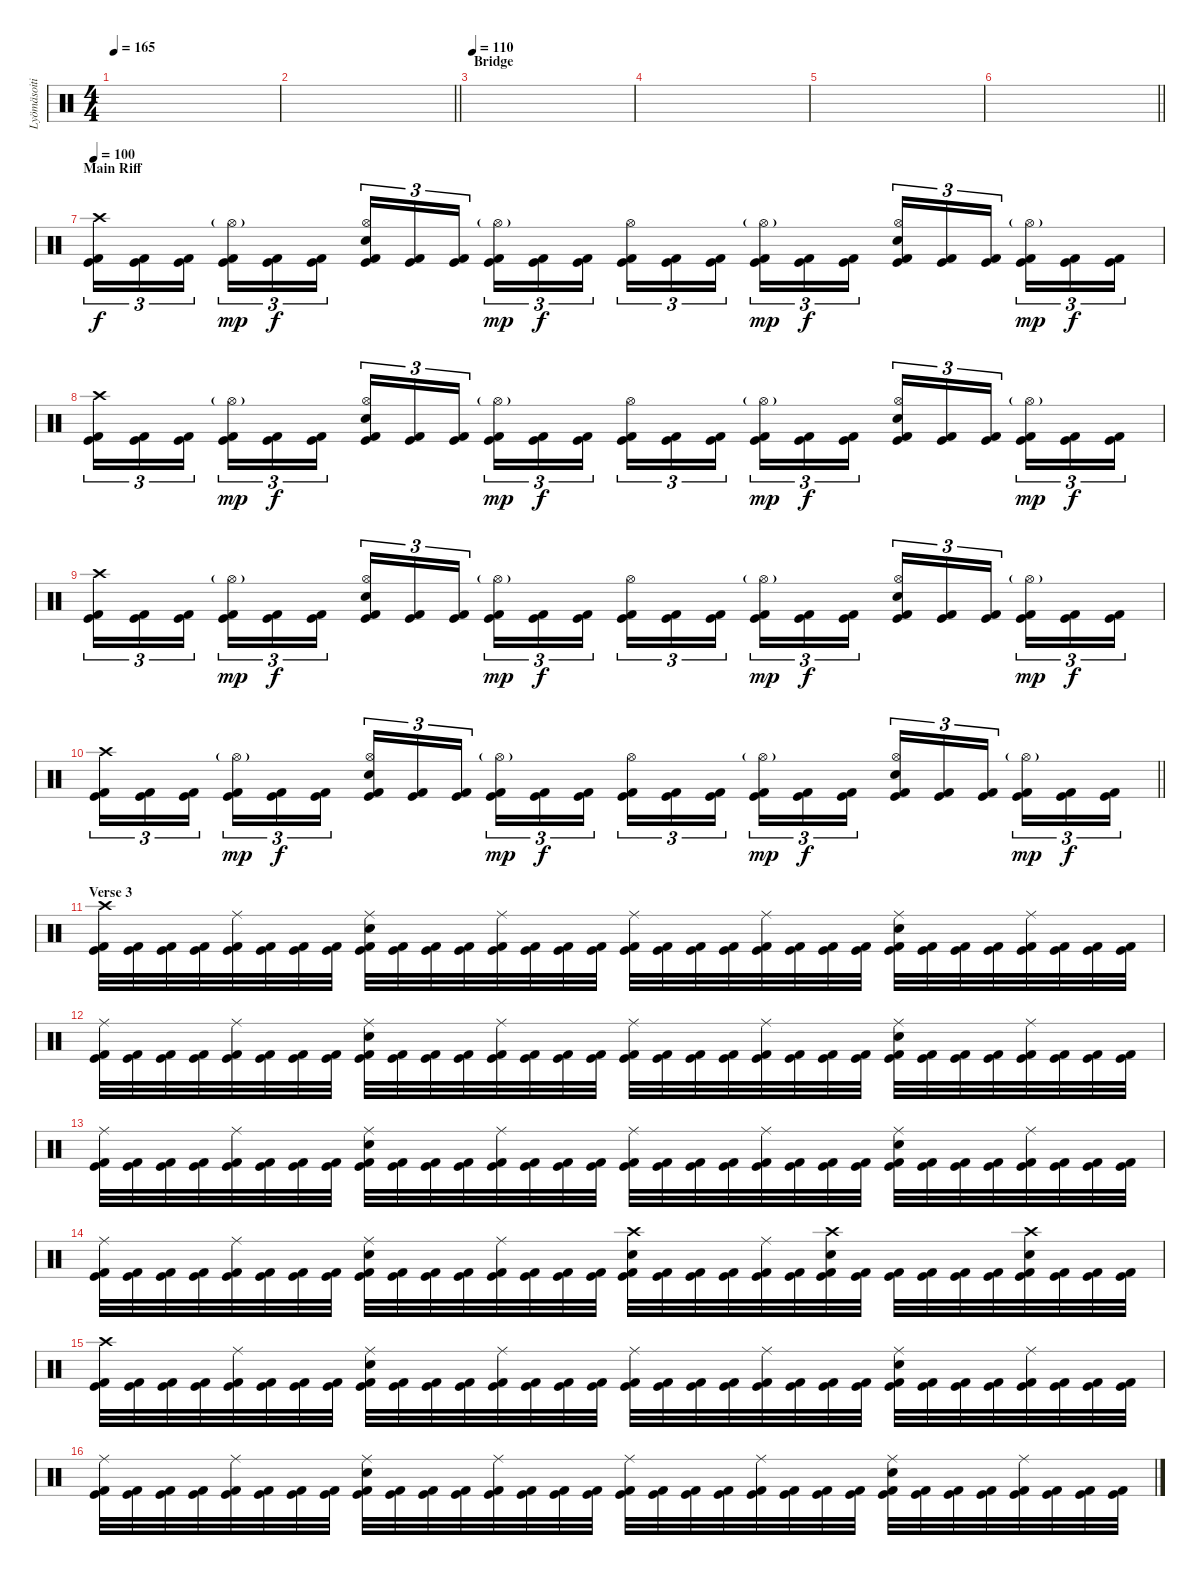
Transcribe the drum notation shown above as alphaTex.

\track ("Lyömäsoitin" "Lyömäsoiti") {instrument percussion}
\staff {score}
\articulation defaults
\ts (4 4)
\tempo 165
\clef neutral
\ks c
|
\barLineRight lightlight
|
\section ("" "Bridge")
\tempo 110
|
|
|
\barLineRight lightlight
|
\section ("" "Main Riff")
\tempo 100
("Crash high (hit)" "Kick (hit) 2" "Kick (hit)").16{tu (3 2)} ("Kick (hit) 2" "Kick (hit)").16{tu (3 2)} ("Kick (hit) 2" "Kick (hit)").16{tu (3 2) beam splitsecondary} ("Hi-Hat (open)"{g} "Kick (hit) 2" "Kick (hit)").16{tu (3 2) dy mp} ("Kick (hit) 2" "Kick (hit)").16{tu (3 2) dy f} ("Kick (hit) 2" "Kick (hit)").16{tu (3 2)} ("Electric Snare (hit)" "Hi-Hat (open)" "Kick (hit) 2" "Kick (hit)").16{tu (3 2)} ("Kick (hit) 2" "Kick (hit)").16{tu (3 2)} ("Kick (hit) 2" "Kick (hit)").16{tu (3 2) beam splitsecondary} ("Hi-Hat (open)"{g} "Kick (hit) 2" "Kick (hit)").16{tu (3 2) dy mp} ("Kick (hit) 2" "Kick (hit)").16{tu (3 2) dy f} ("Kick (hit) 2" "Kick (hit)").16{tu (3 2)} ("Hi-Hat (open)" "Kick (hit) 2" "Kick (hit)").16{tu (3 2)} ("Kick (hit) 2" "Kick (hit)").16{tu (3 2)} ("Kick (hit) 2" "Kick (hit)").16{tu (3 2) beam splitsecondary} ("Hi-Hat (open)"{g} "Kick (hit) 2" "Kick (hit)").16{tu (3 2) dy mp} ("Kick (hit) 2" "Kick (hit)").16{tu (3 2) dy f} ("Kick (hit) 2" "Kick (hit)").16{tu (3 2)} ("Electric Snare (hit)" "Hi-Hat (open)" "Kick (hit) 2" "Kick (hit)").16{tu (3 2)} ("Kick (hit) 2" "Kick (hit)").16{tu (3 2)} ("Kick (hit) 2" "Kick (hit)").16{tu (3 2) beam splitsecondary} ("Hi-Hat (open)"{g} "Kick (hit) 2" "Kick (hit)").16{tu (3 2) dy mp} ("Kick (hit) 2" "Kick (hit)").16{tu (3 2) dy f} ("Kick (hit) 2" "Kick (hit)").16{tu (3 2)} |
("Crash high (hit)" "Kick (hit) 2" "Kick (hit)").16{tu (3 2)} ("Kick (hit) 2" "Kick (hit)").16{tu (3 2)} ("Kick (hit) 2" "Kick (hit)").16{tu (3 2) beam splitsecondary} ("Hi-Hat (open)"{g} "Kick (hit) 2" "Kick (hit)").16{tu (3 2) dy mp} ("Kick (hit) 2" "Kick (hit)").16{tu (3 2) dy f} ("Kick (hit) 2" "Kick (hit)").16{tu (3 2)} ("Electric Snare (hit)" "Hi-Hat (open)" "Kick (hit) 2" "Kick (hit)").16{tu (3 2)} ("Kick (hit) 2" "Kick (hit)").16{tu (3 2)} ("Kick (hit) 2" "Kick (hit)").16{tu (3 2) beam splitsecondary} ("Hi-Hat (open)"{g} "Kick (hit) 2" "Kick (hit)").16{tu (3 2) dy mp} ("Kick (hit) 2" "Kick (hit)").16{tu (3 2) dy f} ("Kick (hit) 2" "Kick (hit)").16{tu (3 2)} ("Hi-Hat (open)" "Kick (hit) 2" "Kick (hit)").16{tu (3 2)} ("Kick (hit) 2" "Kick (hit)").16{tu (3 2)} ("Kick (hit) 2" "Kick (hit)").16{tu (3 2) beam splitsecondary} ("Hi-Hat (open)"{g} "Kick (hit) 2" "Kick (hit)").16{tu (3 2) dy mp} ("Kick (hit) 2" "Kick (hit)").16{tu (3 2) dy f} ("Kick (hit) 2" "Kick (hit)").16{tu (3 2)} ("Electric Snare (hit)" "Hi-Hat (open)" "Kick (hit) 2" "Kick (hit)").16{tu (3 2)} ("Kick (hit) 2" "Kick (hit)").16{tu (3 2)} ("Kick (hit) 2" "Kick (hit)").16{tu (3 2) beam splitsecondary} ("Hi-Hat (open)"{g} "Kick (hit) 2" "Kick (hit)").16{tu (3 2) dy mp} ("Kick (hit) 2" "Kick (hit)").16{tu (3 2) dy f} ("Kick (hit) 2" "Kick (hit)").16{tu (3 2)} |
("Crash high (hit)" "Kick (hit) 2" "Kick (hit)").16{tu (3 2)} ("Kick (hit) 2" "Kick (hit)").16{tu (3 2)} ("Kick (hit) 2" "Kick (hit)").16{tu (3 2) beam splitsecondary} ("Hi-Hat (open)"{g} "Kick (hit) 2" "Kick (hit)").16{tu (3 2) dy mp} ("Kick (hit) 2" "Kick (hit)").16{tu (3 2) dy f} ("Kick (hit) 2" "Kick (hit)").16{tu (3 2)} ("Electric Snare (hit)" "Hi-Hat (open)" "Kick (hit) 2" "Kick (hit)").16{tu (3 2)} ("Kick (hit) 2" "Kick (hit)").16{tu (3 2)} ("Kick (hit) 2" "Kick (hit)").16{tu (3 2) beam splitsecondary} ("Hi-Hat (open)"{g} "Kick (hit) 2" "Kick (hit)").16{tu (3 2) dy mp} ("Kick (hit) 2" "Kick (hit)").16{tu (3 2) dy f} ("Kick (hit) 2" "Kick (hit)").16{tu (3 2)} ("Hi-Hat (open)" "Kick (hit) 2" "Kick (hit)").16{tu (3 2)} ("Kick (hit) 2" "Kick (hit)").16{tu (3 2)} ("Kick (hit) 2" "Kick (hit)").16{tu (3 2) beam splitsecondary} ("Hi-Hat (open)"{g} "Kick (hit) 2" "Kick (hit)").16{tu (3 2) dy mp} ("Kick (hit) 2" "Kick (hit)").16{tu (3 2) dy f} ("Kick (hit) 2" "Kick (hit)").16{tu (3 2)} ("Electric Snare (hit)" "Hi-Hat (open)" "Kick (hit) 2" "Kick (hit)").16{tu (3 2)} ("Kick (hit) 2" "Kick (hit)").16{tu (3 2)} ("Kick (hit) 2" "Kick (hit)").16{tu (3 2) beam splitsecondary} ("Hi-Hat (open)"{g} "Kick (hit) 2" "Kick (hit)").16{tu (3 2) dy mp} ("Kick (hit) 2" "Kick (hit)").16{tu (3 2) dy f} ("Kick (hit) 2" "Kick (hit)").16{tu (3 2)} |
\barLineRight lightlight
("Crash high (hit)" "Kick (hit) 2" "Kick (hit)").16{tu (3 2)} ("Kick (hit) 2" "Kick (hit)").16{tu (3 2)} ("Kick (hit) 2" "Kick (hit)").16{tu (3 2) beam splitsecondary} ("Hi-Hat (open)"{g} "Kick (hit) 2" "Kick (hit)").16{tu (3 2) dy mp} ("Kick (hit) 2" "Kick (hit)").16{tu (3 2) dy f} ("Kick (hit) 2" "Kick (hit)").16{tu (3 2)} ("Electric Snare (hit)" "Hi-Hat (open)" "Kick (hit) 2" "Kick (hit)").16{tu (3 2)} ("Kick (hit) 2" "Kick (hit)").16{tu (3 2)} ("Kick (hit) 2" "Kick (hit)").16{tu (3 2) beam splitsecondary} ("Hi-Hat (open)"{g} "Kick (hit) 2" "Kick (hit)").16{tu (3 2) dy mp} ("Kick (hit) 2" "Kick (hit)").16{tu (3 2) dy f} ("Kick (hit) 2" "Kick (hit)").16{tu (3 2)} ("Hi-Hat (open)" "Kick (hit) 2" "Kick (hit)").16{tu (3 2)} ("Kick (hit) 2" "Kick (hit)").16{tu (3 2)} ("Kick (hit) 2" "Kick (hit)").16{tu (3 2) beam splitsecondary} ("Hi-Hat (open)"{g} "Kick (hit) 2" "Kick (hit)").16{tu (3 2) dy mp} ("Kick (hit) 2" "Kick (hit)").16{tu (3 2) dy f} ("Kick (hit) 2" "Kick (hit)").16{tu (3 2)} ("Electric Snare (hit)" "Hi-Hat (open)" "Kick (hit) 2" "Kick (hit)").16{tu (3 2)} ("Kick (hit) 2" "Kick (hit)").16{tu (3 2)} ("Kick (hit) 2" "Kick (hit)").16{tu (3 2) beam splitsecondary} ("Hi-Hat (open)"{g} "Kick (hit) 2" "Kick (hit)").16{tu (3 2) dy mp} ("Kick (hit) 2" "Kick (hit)").16{tu (3 2) dy f} ("Kick (hit) 2" "Kick (hit)").16{tu (3 2)} |
\section ("" "Verse 3")
("Kick (hit) 2" "Crash high (hit)" "Kick (hit)").32 ("Kick (hit) 2" "Kick (hit)").32 ("Kick (hit) 2" "Kick (hit)").32 ("Kick (hit) 2" "Kick (hit)").32 ("Kick (hit) 2" "Ride (middle)" "Kick (hit)").32 ("Kick (hit) 2" "Kick (hit)").32 ("Kick (hit) 2" "Kick (hit)").32 ("Kick (hit) 2" "Kick (hit)").32 ("Kick (hit) 2" "Ride (middle)" "Electric Snare (hit)" "Kick (hit)").32 ("Kick (hit) 2" "Kick (hit)").32 ("Kick (hit) 2" "Kick (hit)").32 ("Kick (hit) 2" "Kick (hit)").32 ("Kick (hit) 2" "Ride (middle)" "Kick (hit)").32 ("Kick (hit) 2" "Kick (hit)").32 ("Kick (hit) 2" "Kick (hit)").32 ("Kick (hit) 2" "Kick (hit)").32 ("Kick (hit) 2" "Ride (middle)" "Kick (hit)").32 ("Kick (hit) 2" "Kick (hit)").32 ("Kick (hit) 2" "Kick (hit)").32 ("Kick (hit) 2" "Kick (hit)").32 ("Kick (hit) 2" "Ride (middle)" "Kick (hit)").32 ("Kick (hit) 2" "Kick (hit)").32 ("Kick (hit) 2" "Kick (hit)").32 ("Kick (hit) 2" "Kick (hit)").32 ("Kick (hit) 2" "Ride (middle)" "Electric Snare (hit)" "Kick (hit)").32 ("Kick (hit) 2" "Kick (hit)").32 ("Kick (hit) 2" "Kick (hit)").32 ("Kick (hit) 2" "Kick (hit)").32 ("Kick (hit) 2" "Ride (middle)" "Kick (hit)").32 ("Kick (hit) 2" "Kick (hit)").32 ("Kick (hit) 2" "Kick (hit)").32 ("Kick (hit) 2" "Kick (hit)").32 |
("Kick (hit) 2" "Ride (middle)" "Kick (hit)").32 ("Kick (hit) 2" "Kick (hit)").32 ("Kick (hit) 2" "Kick (hit)").32 ("Kick (hit) 2" "Kick (hit)").32 ("Kick (hit) 2" "Ride (middle)" "Kick (hit)").32 ("Kick (hit) 2" "Kick (hit)").32 ("Kick (hit) 2" "Kick (hit)").32 ("Kick (hit) 2" "Kick (hit)").32 ("Kick (hit) 2" "Ride (middle)" "Electric Snare (hit)" "Kick (hit)").32 ("Kick (hit) 2" "Kick (hit)").32 ("Kick (hit) 2" "Kick (hit)").32 ("Kick (hit) 2" "Kick (hit)").32 ("Kick (hit) 2" "Ride (middle)" "Kick (hit)").32 ("Kick (hit) 2" "Kick (hit)").32 ("Kick (hit) 2" "Kick (hit)").32 ("Kick (hit) 2" "Kick (hit)").32 ("Kick (hit) 2" "Ride (middle)" "Kick (hit)").32 ("Kick (hit) 2" "Kick (hit)").32 ("Kick (hit) 2" "Kick (hit)").32 ("Kick (hit) 2" "Kick (hit)").32 ("Kick (hit) 2" "Ride (middle)" "Kick (hit)").32 ("Kick (hit) 2" "Kick (hit)").32 ("Kick (hit) 2" "Kick (hit)").32 ("Kick (hit) 2" "Kick (hit)").32 ("Kick (hit) 2" "Ride (middle)" "Electric Snare (hit)" "Kick (hit)").32 ("Kick (hit) 2" "Kick (hit)").32 ("Kick (hit) 2" "Kick (hit)").32 ("Kick (hit) 2" "Kick (hit)").32 ("Kick (hit) 2" "Ride (middle)" "Kick (hit)").32 ("Kick (hit) 2" "Kick (hit)").32 ("Kick (hit) 2" "Kick (hit)").32 ("Kick (hit) 2" "Kick (hit)").32 |
("Kick (hit) 2" "Ride (middle)" "Kick (hit)").32 ("Kick (hit) 2" "Kick (hit)").32 ("Kick (hit) 2" "Kick (hit)").32 ("Kick (hit) 2" "Kick (hit)").32 ("Kick (hit) 2" "Ride (middle)" "Kick (hit)").32 ("Kick (hit) 2" "Kick (hit)").32 ("Kick (hit) 2" "Kick (hit)").32 ("Kick (hit) 2" "Kick (hit)").32 ("Kick (hit) 2" "Ride (middle)" "Electric Snare (hit)" "Kick (hit)").32 ("Kick (hit) 2" "Kick (hit)").32 ("Kick (hit) 2" "Kick (hit)").32 ("Kick (hit) 2" "Kick (hit)").32 ("Kick (hit) 2" "Ride (middle)" "Kick (hit)").32 ("Kick (hit) 2" "Kick (hit)").32 ("Kick (hit) 2" "Kick (hit)").32 ("Kick (hit) 2" "Kick (hit)").32 ("Kick (hit) 2" "Ride (middle)" "Kick (hit)").32 ("Kick (hit) 2" "Kick (hit)").32 ("Kick (hit) 2" "Kick (hit)").32 ("Kick (hit) 2" "Kick (hit)").32 ("Kick (hit) 2" "Ride (middle)" "Kick (hit)").32 ("Kick (hit) 2" "Kick (hit)").32 ("Kick (hit) 2" "Kick (hit)").32 ("Kick (hit) 2" "Kick (hit)").32 ("Kick (hit) 2" "Ride (middle)" "Electric Snare (hit)" "Kick (hit)").32 ("Kick (hit) 2" "Kick (hit)").32 ("Kick (hit) 2" "Kick (hit)").32 ("Kick (hit) 2" "Kick (hit)").32 ("Kick (hit) 2" "Ride (middle)" "Kick (hit)").32 ("Kick (hit) 2" "Kick (hit)").32 ("Kick (hit) 2" "Kick (hit)").32 ("Kick (hit) 2" "Kick (hit)").32 |
("Kick (hit) 2" "Ride (middle)" "Kick (hit)").32 ("Kick (hit) 2" "Kick (hit)").32 ("Kick (hit) 2" "Kick (hit)").32 ("Kick (hit) 2" "Kick (hit)").32 ("Kick (hit) 2" "Ride (middle)" "Kick (hit)").32 ("Kick (hit) 2" "Kick (hit)").32 ("Kick (hit) 2" "Kick (hit)").32 ("Kick (hit) 2" "Kick (hit)").32 ("Kick (hit) 2" "Ride (middle)" "Electric Snare (hit)" "Kick (hit)").32 ("Kick (hit) 2" "Kick (hit)").32 ("Kick (hit) 2" "Kick (hit)").32 ("Kick (hit) 2" "Kick (hit)").32 ("Kick (hit) 2" "Ride (middle)" "Kick (hit)").32 ("Kick (hit) 2" "Kick (hit)").32 ("Kick (hit) 2" "Kick (hit)").32 ("Kick (hit) 2" "Kick (hit)").32 ("Kick (hit) 2" "Crash high (hit)" "Electric Snare (hit)" "Kick (hit)").32 ("Kick (hit) 2" "Kick (hit)").32 ("Kick (hit) 2" "Kick (hit)").32 ("Kick (hit) 2" "Kick (hit)").32 ("Kick (hit) 2" "Ride (middle)" "Kick (hit)").32 ("Kick (hit) 2" "Kick (hit)").32 ("Kick (hit) 2" "Crash high (hit)" "Electric Snare (hit)" "Kick (hit)").32 ("Kick (hit) 2" "Kick (hit)").32 ("Kick (hit) 2" "Kick (hit)").32 ("Kick (hit) 2" "Kick (hit)").32 ("Kick (hit) 2" "Kick (hit)").32 ("Kick (hit) 2" "Kick (hit)").32 ("Kick (hit) 2" "Electric Snare (hit)" "Crash high (hit)" "Kick (hit)").32 ("Kick (hit) 2" "Kick (hit)").32 ("Kick (hit) 2" "Kick (hit)").32 ("Kick (hit) 2" "Kick (hit)").32 |
("Kick (hit) 2" "Crash high (hit)" "Kick (hit)").32 ("Kick (hit) 2" "Kick (hit)").32 ("Kick (hit) 2" "Kick (hit)").32 ("Kick (hit) 2" "Kick (hit)").32 ("Kick (hit) 2" "Ride (middle)" "Kick (hit)").32 ("Kick (hit) 2" "Kick (hit)").32 ("Kick (hit) 2" "Kick (hit)").32 ("Kick (hit) 2" "Kick (hit)").32 ("Kick (hit) 2" "Ride (middle)" "Electric Snare (hit)" "Kick (hit)").32 ("Kick (hit) 2" "Kick (hit)").32 ("Kick (hit) 2" "Kick (hit)").32 ("Kick (hit) 2" "Kick (hit)").32 ("Kick (hit) 2" "Ride (middle)" "Kick (hit)").32 ("Kick (hit) 2" "Kick (hit)").32 ("Kick (hit) 2" "Kick (hit)").32 ("Kick (hit) 2" "Kick (hit)").32 ("Kick (hit) 2" "Ride (middle)" "Kick (hit)").32 ("Kick (hit) 2" "Kick (hit)").32 ("Kick (hit) 2" "Kick (hit)").32 ("Kick (hit) 2" "Kick (hit)").32 ("Kick (hit) 2" "Ride (middle)" "Kick (hit)").32 ("Kick (hit) 2" "Kick (hit)").32 ("Kick (hit) 2" "Kick (hit)").32 ("Kick (hit) 2" "Kick (hit)").32 ("Kick (hit) 2" "Ride (middle)" "Electric Snare (hit)" "Kick (hit)").32 ("Kick (hit) 2" "Kick (hit)").32 ("Kick (hit) 2" "Kick (hit)").32 ("Kick (hit) 2" "Kick (hit)").32 ("Kick (hit) 2" "Ride (middle)" "Kick (hit)").32 ("Kick (hit) 2" "Kick (hit)").32 ("Kick (hit) 2" "Kick (hit)").32 ("Kick (hit) 2" "Kick (hit)").32 |
("Kick (hit) 2" "Ride (middle)" "Kick (hit)").32 ("Kick (hit) 2" "Kick (hit)").32 ("Kick (hit) 2" "Kick (hit)").32 ("Kick (hit) 2" "Kick (hit)").32 ("Kick (hit) 2" "Ride (middle)" "Kick (hit)").32 ("Kick (hit) 2" "Kick (hit)").32 ("Kick (hit) 2" "Kick (hit)").32 ("Kick (hit) 2" "Kick (hit)").32 ("Kick (hit) 2" "Ride (middle)" "Electric Snare (hit)" "Kick (hit)").32 ("Kick (hit) 2" "Kick (hit)").32 ("Kick (hit) 2" "Kick (hit)").32 ("Kick (hit) 2" "Kick (hit)").32 ("Kick (hit) 2" "Ride (middle)" "Kick (hit)").32 ("Kick (hit) 2" "Kick (hit)").32 ("Kick (hit) 2" "Kick (hit)").32 ("Kick (hit) 2" "Kick (hit)").32 ("Kick (hit) 2" "Ride (middle)" "Kick (hit)").32 ("Kick (hit) 2" "Kick (hit)").32 ("Kick (hit) 2" "Kick (hit)").32 ("Kick (hit) 2" "Kick (hit)").32 ("Kick (hit) 2" "Ride (middle)" "Kick (hit)").32 ("Kick (hit) 2" "Kick (hit)").32 ("Kick (hit) 2" "Kick (hit)").32 ("Kick (hit) 2" "Kick (hit)").32 ("Kick (hit) 2" "Ride (middle)" "Electric Snare (hit)" "Kick (hit)").32 ("Kick (hit) 2" "Kick (hit)").32 ("Kick (hit) 2" "Kick (hit)").32 ("Kick (hit) 2" "Kick (hit)").32 ("Kick (hit) 2" "Ride (middle)" "Kick (hit)").32 ("Kick (hit) 2" "Kick (hit)").32 ("Kick (hit) 2" "Kick (hit)").32 ("Kick (hit) 2" "Kick (hit)").32
